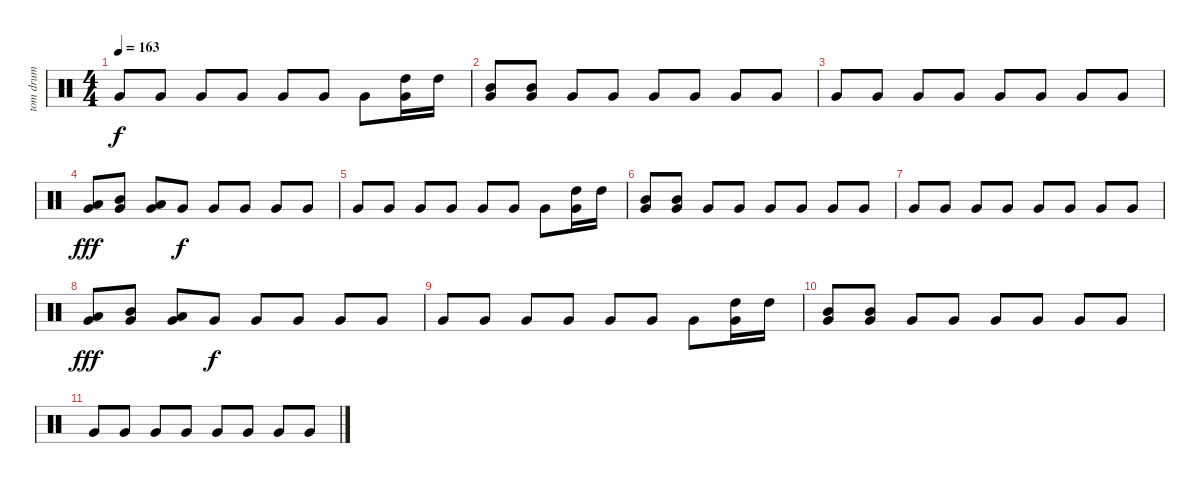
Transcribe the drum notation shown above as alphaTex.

\track ("tom drum" "tom drum") {instrument percussion}
\staff {score}
\articulation defaults
\ts (4 4)
\tempo 163
\clef neutral
\ks c "Very Low Tom (hit)".8{dy f} "Very Low Tom (hit)".8 "Very Low Tom (hit)".8 "Very Low Tom (hit)".8 "Very Low Tom (hit)".8 "Very Low Tom (hit)".8 "Very Low Tom (hit)".8
("Very Low Tom (hit)" "High Tom (hit)").16 "High Tom (hit)".16 |
("Very Low Tom (hit)" "Mid Tom (hit)").8 ("Very Low Tom (hit)" "Mid Tom (hit)").8 "Very Low Tom (hit)".8 "Very Low Tom (hit)".8 "Very Low Tom (hit)".8 "Very Low Tom (hit)".8 "Very Low Tom (hit)".8 "Very Low Tom (hit)".8 |
"Very Low Tom (hit)".8 "Very Low Tom (hit)".8 "Very Low Tom (hit)".8 "Very Low Tom (hit)".8 "Very Low Tom (hit)".8 "Very Low Tom (hit)".8 "Very Low Tom (hit)".8 "Very Low Tom (hit)".8 |
("Very Low Tom (hit)" "Low Tom (hit)").8{dy fff} ("Very Low Tom (hit)" "Mid Tom (hit)").8 ("Very Low Tom (hit)" "Low Tom (hit)").8 "Very Low Tom (hit)".8{dy f} "Very Low Tom (hit)".8 "Very Low Tom (hit)".8 "Very Low Tom (hit)".8 "Very Low Tom (hit)".8 |
"Very Low Tom (hit)".8 "Very Low Tom (hit)".8 "Very Low Tom (hit)".8 "Very Low Tom (hit)".8 "Very Low Tom (hit)".8 "Very Low Tom (hit)".8 "Very Low Tom (hit)".8 ("Very Low Tom (hit)" "High Tom (hit)").16 "High Tom (hit)".16 |
("Very Low Tom (hit)" "Mid Tom (hit)").8 ("Very Low Tom (hit)" "Mid Tom (hit)").8 "Very Low Tom (hit)".8 "Very Low Tom (hit)".8 "Very Low Tom (hit)".8 "Very Low Tom (hit)".8 "Very Low Tom (hit)".8 "Very Low Tom (hit)".8 |
"Very Low Tom (hit)".8 "Very Low Tom (hit)".8 "Very Low Tom (hit)".8 "Very Low Tom (hit)".8 "Very Low Tom (hit)".8 "Very Low Tom (hit)".8 "Very Low Tom (hit)".8 "Very Low Tom (hit)".8 |
("Very Low Tom (hit)" "Low Tom (hit)").8{dy fff} ("Very Low Tom (hit)" "Mid Tom (hit)").8 ("Very Low Tom (hit)" "Low Tom (hit)").8 "Very Low Tom (hit)".8{dy f} "Very Low Tom (hit)".8 "Very Low Tom (hit)".8 "Very Low Tom (hit)".8 "Very Low Tom (hit)".8 |
"Very Low Tom (hit)".8 "Very Low Tom (hit)".8 "Very Low Tom (hit)".8 "Very Low Tom (hit)".8 "Very Low Tom (hit)".8 "Very Low Tom (hit)".8 "Very Low Tom (hit)".8 ("Very Low Tom (hit)" "High Tom (hit)").16 "High Tom (hit)".16 |
("Very Low Tom (hit)" "Mid Tom (hit)").8 ("Very Low Tom (hit)" "Mid Tom (hit)").8 "Very Low Tom (hit)".8 "Very Low Tom (hit)".8 "Very Low Tom (hit)".8 "Very Low Tom (hit)".8 "Very Low Tom (hit)".8 "Very Low Tom (hit)".8 |
"Very Low Tom (hit)".8 "Very Low Tom (hit)".8 "Very Low Tom (hit)".8 "Very Low Tom (hit)".8 "Very Low Tom (hit)".8 "Very Low Tom (hit)".8 "Very Low Tom (hit)".8 "Very Low Tom (hit)".8
